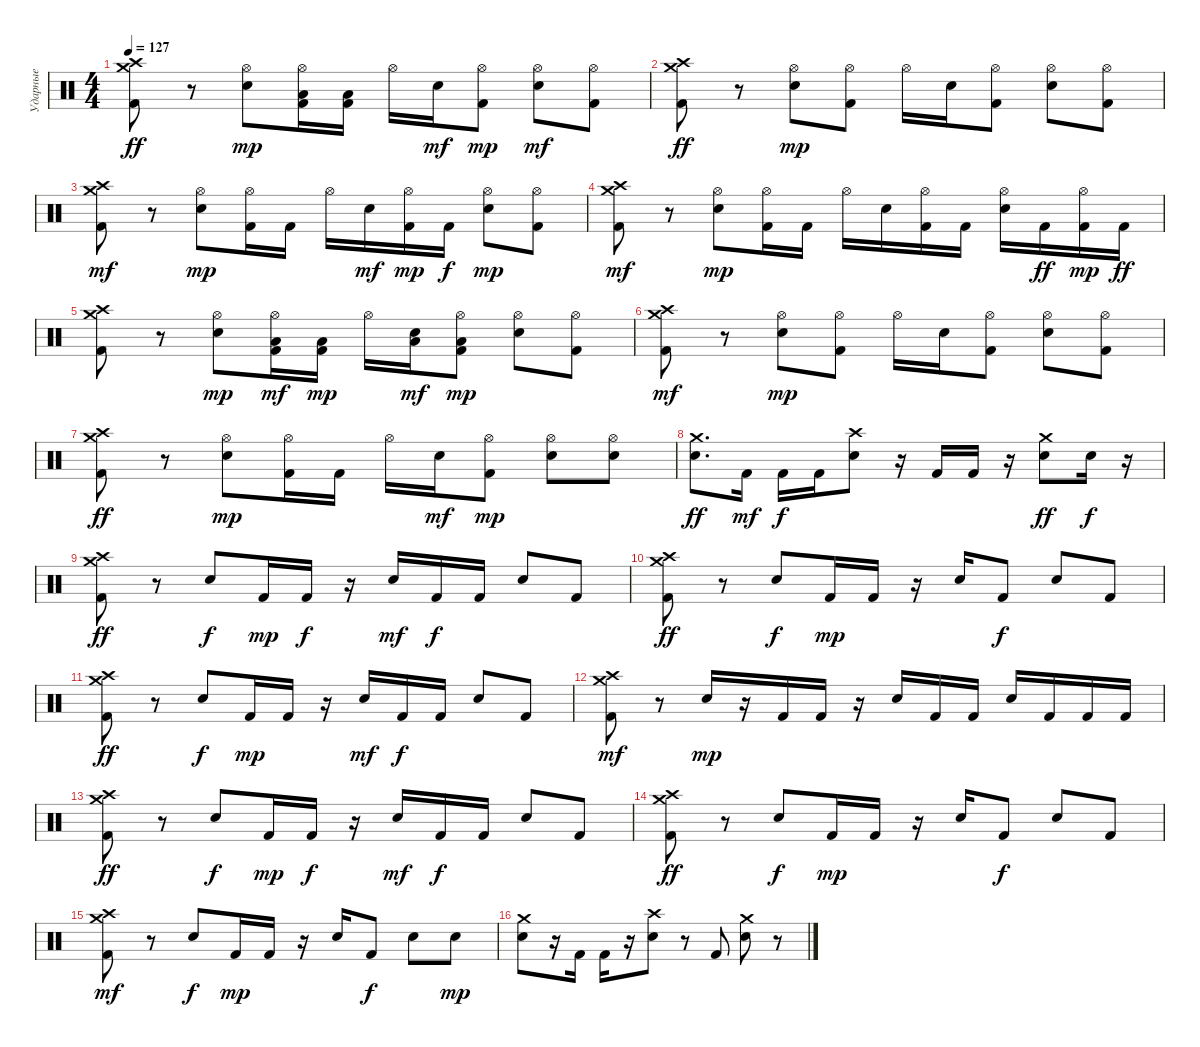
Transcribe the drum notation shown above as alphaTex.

\track ("Ударные" "Ударные") {instrument percussion}
\staff {score}
\articulation defaults
\ts (4 4)
\tempo 127
\clef neutral
\ks c
("Crash high (hit)" "Crash medium (hit)" "Kick (hit) 2").8{dy ff} r.8 ("Hi-Hat (open)" "Snare (hit) 2").8{dy mp} ("Low Tom (hit)" "Kick (hit) 2" "Hi-Hat (open)").16 ("Low Floor Tom (hit)" "Kick (hit) 2").16 "Hi-Hat (open)".16 "Electric Snare (hit)".16{dy mf} ("Hi-Hat (open)" "Kick (hit) 2").8{dy mp} ("Hi-Hat (open)" "Snare (hit) 2").8{dy mf} ("Kick (hit) 2" "Hi-Hat (open)").8 |
("Crash high (hit)" "Crash medium (hit)" "Kick (hit) 2").8{dy ff} r.8 ("Snare (hit) 2" "Hi-Hat (open)").8{dy mp} ("Hi-Hat (open)" "Kick (hit) 2").8 "Hi-Hat (open)".16 "Electric Snare (hit)".16 ("Hi-Hat (open)" "Kick (hit) 2").8 ("Snare (hit) 2" "Hi-Hat (open)").8 ("Kick (hit) 2" "Hi-Hat (open)").8 |
("Kick (hit) 2" "Crash medium (hit)" "Crash high (hit)").8{dy mf} r.8 ("Snare (hit) 2" "Hi-Hat (open)").8{dy mp} ("Hi-Hat (open)" "Kick (hit) 2").16 "Kick (hit) 2".16 "Hi-Hat (open)".16 "Electric Snare (hit)".16{dy mf} ("Hi-Hat (open)" "Kick (hit) 2").16{dy mp} "Kick (hit) 2".16{dy f} ("Hi-Hat (open)" "Snare (hit) 2").8{dy mp} ("Hi-Hat (open)" "Kick (hit) 2").8 |
("Kick (hit) 2" "Crash medium (hit)" "Crash high (hit)").8{dy mf} r.8 ("Hi-Hat (open)" "Electric Snare (hit)").8{dy mp} ("Kick (hit) 2" "Hi-Hat (open)").16 "Kick (hit) 2".16 "Hi-Hat (open)".16 "Electric Snare (hit)".16 ("Hi-Hat (open)" "Kick (hit) 2").16 "Kick (hit) 2".16 ("Hi-Hat (open)" "Electric Snare (hit)").16 "Kick (hit) 2".16{dy ff} ("Hi-Hat (open)" "Kick (hit) 2").16{dy mp} "Kick (hit) 2".16{dy ff} |
("Crash high (hit)" "Crash medium (hit)" "Kick (hit) 2").8 r.8 ("Snare (hit) 2" "Hi-Hat (open)").8{dy mp} ("Hi-Hat (open)" "Kick (hit) 2" "Low Tom (hit)").16{dy mf} ("Kick (hit) 2" "Low Floor Tom (hit)").16{dy mp} "Hi-Hat (open)".16 ("Low Floor Tom (hit)" "Electric Snare (hit)").16{dy mf} ("Low Tom (hit)" "Kick (hit) 2" "Hi-Hat (open)").8{dy mp} ("Snare (hit) 2" "Hi-Hat (open)").8 ("Hi-Hat (open)" "Kick (hit) 2").8 |
("Kick (hit) 2" "Crash medium (hit)" "Crash high (hit)").8{dy mf} r.8 ("Hi-Hat (open)" "Snare (hit) 2").8{dy mp} ("Kick (hit) 2" "Hi-Hat (open)").8 "Hi-Hat (open)".16 "Electric Snare (hit)".16 ("Hi-Hat (open)" "Kick (hit) 2").8 ("Snare (hit) 2" "Hi-Hat (open)").8 ("Kick (hit) 2" "Hi-Hat (open)").8 |
("Crash high (hit)" "Crash medium (hit)" "Kick (hit) 2").8{dy ff} r.8 ("Hi-Hat (open)" "Snare (hit) 2").8{dy mp} ("Hi-Hat (open)" "Kick (hit) 2").16 "Kick (hit) 2".16 "Hi-Hat (open)".16 "Electric Snare (hit)".16{dy mf} ("Kick (hit) 2" "Hi-Hat (open)").8{dy mp} ("Snare (hit) 2" "Hi-Hat (open)").8 ("Snare (hit) 2" "Hi-Hat (open)").8 |
("Snare (hit) 2" "Crash medium (hit)").8{d dy ff} "Kick (hit) 2".16{dy mf} "Kick (hit) 2".16{dy f} "Kick (hit) 2".16 ("Crash high (hit)" "Snare (hit) 2").8 r.16 "Kick (hit) 2".16 "Kick (hit) 2".16 r.16 ("Crash medium (hit)" "Snare (hit) 2").8{dy ff} "Snare (hit) 2".16{dy f} r.16 |
("Crash high (hit)" "Crash medium (hit)" "Kick (hit) 2").8{dy ff} r.8 "Snare (hit) 2".8{dy f} "Kick (hit) 2".16{dy mp} "Kick (hit) 2".16{dy f} r.16 "Electric Snare (hit)".16{dy mf} "Kick (hit) 2".16{dy f} "Kick (hit) 2".16 "Snare (hit) 2".8 "Kick (hit) 2".8 |
("Crash high (hit)" "Crash medium (hit)" "Kick (hit) 2").8{dy ff} r.8 "Snare (hit) 2".8{dy f} "Kick (hit) 2".16{dy mp} "Kick (hit) 2".16 r.16 "Electric Snare (hit)".16 "Kick (hit) 2".8{dy f} "Snare (hit) 2".8 "Kick (hit) 2".8 |
("Crash high (hit)" "Crash medium (hit)" "Kick (hit) 2").8{dy ff} r.8 "Snare (hit) 2".8{dy f} "Kick (hit) 2".16{dy mp} "Kick (hit) 2".16 r.16 "Electric Snare (hit)".16{dy mf} "Kick (hit) 2".16{dy f} "Kick (hit) 2".16 "Snare (hit) 2".8 "Kick (hit) 2".8 |
("Kick (hit) 2" "Crash medium (hit)" "Crash high (hit)").8{dy mf} r.8 "Electric Snare (hit)".16{dy mp} r.16 "Kick (hit) 2".16 "Kick (hit) 2".16 r.16 "Electric Snare (hit)".16 "Kick (hit) 2".16 "Kick (hit) 2".16 "Electric Snare (hit)".16 "Kick (hit) 2".16 "Kick (hit) 2".16 "Kick (hit) 2".16 |
("Crash high (hit)" "Crash medium (hit)" "Kick (hit) 2").8{dy ff} r.8 "Snare (hit) 2".8{dy f} "Kick (hit) 2".16{dy mp} "Kick (hit) 2".16{dy f} r.16 "Electric Snare (hit)".16{dy mf} "Kick (hit) 2".16{dy f} "Kick (hit) 2".16 "Snare (hit) 2".8 "Kick (hit) 2".8 |
("Crash high (hit)" "Crash medium (hit)" "Kick (hit) 2").8{dy ff} r.8 "Snare (hit) 2".8{dy f} "Kick (hit) 2".16{dy mp} "Kick (hit) 2".16 r.16 "Electric Snare (hit)".16 "Kick (hit) 2".8{dy f} "Snare (hit) 2".8 "Kick (hit) 2".8 |
("Kick (hit) 2" "Crash medium (hit)" "Crash high (hit)").8{dy mf} r.8 "Snare (hit) 2".8{dy f} "Kick (hit) 2".16{dy mp} "Kick (hit) 2".16 r.16 "Electric Snare (hit)".16 "Kick (hit) 2".8{dy f} "Snare (hit) 2".8 "Snare (hit) 2".8{dy mp} |
("Crash medium (hit)" "Snare (hit) 2").8 r.16 "Kick (hit) 2".16 "Kick (hit) 2".16 r.16 ("Snare (hit) 2" "Crash high (hit)").8 r.8 "Kick (hit) 2".8 ("Crash medium (hit)" "Snare (hit) 2").8 r.8
